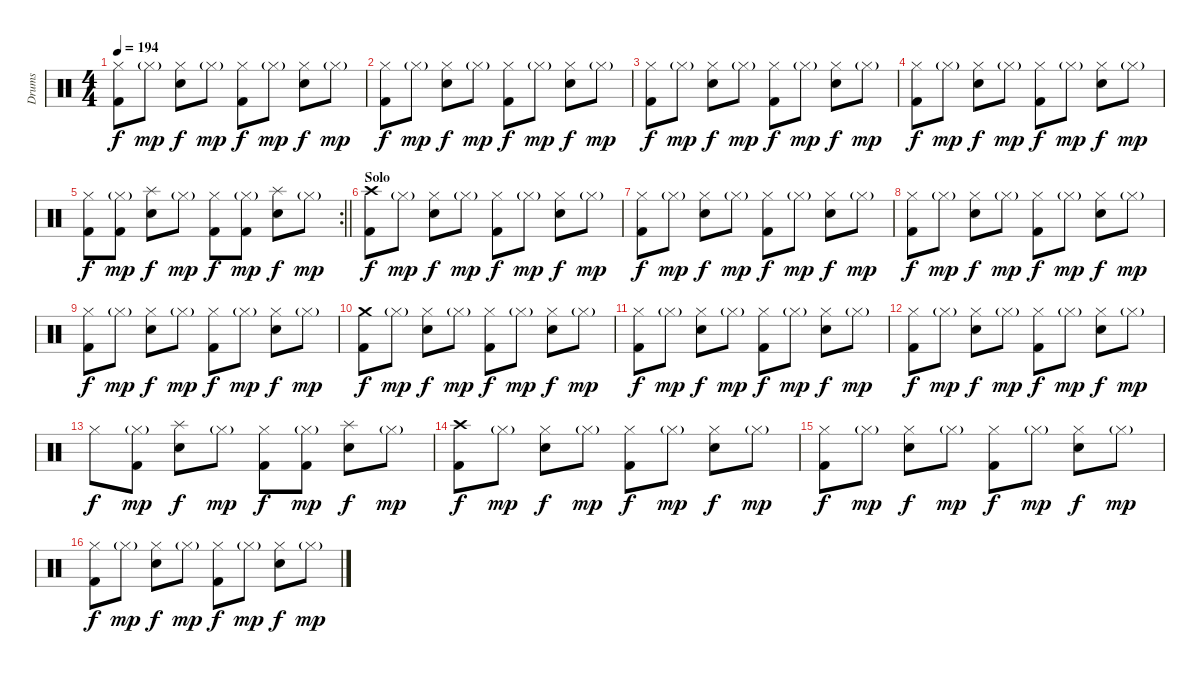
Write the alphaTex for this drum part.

\track ("Drums" "Drums") {instrument percussion}
\staff {score}
\articulation defaults
\ts (4 4)
\tempo 194
\clef neutral
\ks c
("Hi-Hat (closed)" "Kick (hit) 2").8{dy f} "Hi-Hat (closed)"{g}.8{dy mp} ("Hi-Hat (closed)" "Snare (hit) 2").8{dy f} "Hi-Hat (closed)"{g}.8{dy mp} ("Hi-Hat (closed)" "Kick (hit) 2").8{dy f} "Hi-Hat (closed)"{g}.8{dy mp} ("Hi-Hat (closed)" "Snare (hit) 2").8{dy f} "Hi-Hat (closed)"{g}.8{dy mp} |
("Hi-Hat (closed)" "Kick (hit) 2").8{dy f} "Hi-Hat (closed)"{g}.8{dy mp} ("Hi-Hat (closed)" "Snare (hit) 2").8{dy f} "Hi-Hat (closed)"{g}.8{dy mp} ("Hi-Hat (closed)" "Kick (hit) 2").8{dy f} "Hi-Hat (closed)"{g}.8{dy mp} ("Hi-Hat (closed)" "Snare (hit) 2").8{dy f} "Hi-Hat (closed)"{g}.8{dy mp} |
("Hi-Hat (closed)" "Kick (hit) 2").8{dy f} "Hi-Hat (closed)"{g}.8{dy mp} ("Hi-Hat (closed)" "Snare (hit) 2").8{dy f} "Hi-Hat (closed)"{g}.8{dy mp} ("Hi-Hat (closed)" "Kick (hit) 2").8{dy f} "Hi-Hat (closed)"{g}.8{dy mp} ("Hi-Hat (closed)" "Snare (hit) 2").8{dy f} "Hi-Hat (closed)"{g}.8{dy mp} |
("Hi-Hat (closed)" "Kick (hit) 2").8{dy f} "Hi-Hat (closed)"{g}.8{dy mp} ("Hi-Hat (closed)" "Snare (hit) 2").8{dy f} "Hi-Hat (closed)"{g}.8{dy mp} ("Hi-Hat (closed)" "Kick (hit) 2").8{dy f} "Hi-Hat (closed)"{g}.8{dy mp} ("Hi-Hat (closed)" "Snare (hit) 2").8{dy f} "Hi-Hat (closed)"{g}.8{dy mp} |
\rc 2
\barLineRight lightlight
("Hi-Hat (closed)" "Kick (hit) 2").8{dy f} ("Hi-Hat (closed)"{g} "Kick (hit) 2").8{dy mp} ("Splash (hit)" "Snare (hit) 2").8{dy f} "Hi-Hat (closed)"{g}.8{dy mp} ("Hi-Hat (closed)" "Kick (hit) 2").8{dy f} ("Hi-Hat (closed)"{g} "Kick (hit) 2").8{dy mp} ("Splash (hit)" "Snare (hit) 2").8{dy f} "Hi-Hat (closed)"{g}.8{dy mp} |
\section ("" "Solo")
("Crash high (hit)" "Kick (hit) 2").8{dy f} "Hi-Hat (closed)"{g}.8{dy mp} ("Hi-Hat (closed)" "Snare (hit) 2").8{dy f} "Hi-Hat (closed)"{g}.8{dy mp} ("Hi-Hat (closed)" "Kick (hit) 2").8{dy f} "Hi-Hat (closed)"{g}.8{dy mp} ("Hi-Hat (closed)" "Snare (hit) 2").8{dy f} "Hi-Hat (closed)"{g}.8{dy mp} |
("Hi-Hat (closed)" "Kick (hit) 2").8{dy f} "Hi-Hat (closed)"{g}.8{dy mp} ("Hi-Hat (closed)" "Snare (hit) 2").8{dy f} "Hi-Hat (closed)"{g}.8{dy mp} ("Hi-Hat (closed)" "Kick (hit) 2").8{dy f} "Hi-Hat (closed)"{g}.8{dy mp} ("Hi-Hat (closed)" "Snare (hit) 2").8{dy f} "Hi-Hat (closed)"{g}.8{dy mp} |
("Hi-Hat (closed)" "Kick (hit) 2").8{dy f} "Hi-Hat (closed)"{g}.8{dy mp} ("Hi-Hat (closed)" "Snare (hit) 2").8{dy f} "Hi-Hat (closed)"{g}.8{dy mp} ("Hi-Hat (closed)" "Kick (hit) 2").8{dy f} "Hi-Hat (closed)"{g}.8{dy mp} ("Hi-Hat (closed)" "Snare (hit) 2").8{dy f} "Hi-Hat (closed)"{g}.8{dy mp} |
("Hi-Hat (closed)" "Kick (hit) 2").8{dy f} "Hi-Hat (closed)"{g}.8{dy mp} ("Hi-Hat (closed)" "Snare (hit) 2").8{dy f} "Hi-Hat (closed)"{g}.8{dy mp} ("Hi-Hat (closed)" "Kick (hit) 2").8{dy f} "Hi-Hat (closed)"{g}.8{dy mp} ("Hi-Hat (closed)" "Snare (hit) 2").8{dy f} "Hi-Hat (closed)"{g}.8{dy mp} |
("Crash medium (hit)" "Kick (hit) 2").8{dy f} "Hi-Hat (closed)"{g}.8{dy mp} ("Hi-Hat (closed)" "Snare (hit) 2").8{dy f} "Hi-Hat (closed)"{g}.8{dy mp} ("Hi-Hat (closed)" "Kick (hit) 2").8{dy f} "Hi-Hat (closed)"{g}.8{dy mp} ("Hi-Hat (closed)" "Snare (hit) 2").8{dy f} "Hi-Hat (closed)"{g}.8{dy mp} |
("Hi-Hat (closed)" "Kick (hit) 2").8{dy f} "Hi-Hat (closed)"{g}.8{dy mp} ("Hi-Hat (closed)" "Snare (hit) 2").8{dy f} "Hi-Hat (closed)"{g}.8{dy mp} ("Hi-Hat (closed)" "Kick (hit) 2").8{dy f} "Hi-Hat (closed)"{g}.8{dy mp} ("Hi-Hat (closed)" "Snare (hit) 2").8{dy f} "Hi-Hat (closed)"{g}.8{dy mp} |
("Hi-Hat (closed)" "Kick (hit) 2").8{dy f} "Hi-Hat (closed)"{g}.8{dy mp} ("Hi-Hat (closed)" "Snare (hit) 2").8{dy f} "Hi-Hat (closed)"{g}.8{dy mp} ("Hi-Hat (closed)" "Kick (hit) 2").8{dy f} "Hi-Hat (closed)"{g}.8{dy mp} ("Hi-Hat (closed)" "Snare (hit) 2").8{dy f} "Hi-Hat (closed)"{g}.8{dy mp} |
"Hi-Hat (closed)".8{dy f} ("Hi-Hat (closed)"{g} "Kick (hit) 2").8{dy mp} ("Splash (hit)" "Snare (hit) 2").8{dy f} "Hi-Hat (closed)"{g}.8{dy mp} ("Hi-Hat (closed)" "Kick (hit) 2").8{dy f} ("Hi-Hat (closed)"{g} "Kick (hit) 2").8{dy mp} ("Splash (hit)" "Snare (hit) 2").8{dy f} "Hi-Hat (closed)"{g}.8{dy mp} |
("Crash high (hit)" "Kick (hit) 2").8{dy f} "Hi-Hat (closed)"{g}.8{dy mp} ("Hi-Hat (closed)" "Snare (hit) 2").8{dy f} "Hi-Hat (closed)"{g}.8{dy mp} ("Hi-Hat (closed)" "Kick (hit) 2").8{dy f} "Hi-Hat (closed)"{g}.8{dy mp} ("Hi-Hat (closed)" "Snare (hit) 2").8{dy f} "Hi-Hat (closed)"{g}.8{dy mp} |
("Hi-Hat (closed)" "Kick (hit) 2").8{dy f} "Hi-Hat (closed)"{g}.8{dy mp} ("Hi-Hat (closed)" "Snare (hit) 2").8{dy f} "Hi-Hat (closed)"{g}.8{dy mp} ("Hi-Hat (closed)" "Kick (hit) 2").8{dy f} "Hi-Hat (closed)"{g}.8{dy mp} ("Hi-Hat (closed)" "Snare (hit) 2").8{dy f} "Hi-Hat (closed)"{g}.8{dy mp} |
("Hi-Hat (closed)" "Kick (hit) 2").8{dy f} "Hi-Hat (closed)"{g}.8{dy mp} ("Hi-Hat (closed)" "Snare (hit) 2").8{dy f} "Hi-Hat (closed)"{g}.8{dy mp} ("Hi-Hat (closed)" "Kick (hit) 2").8{dy f} "Hi-Hat (closed)"{g}.8{dy mp} ("Hi-Hat (closed)" "Snare (hit) 2").8{dy f} "Hi-Hat (closed)"{g}.8{dy mp}
